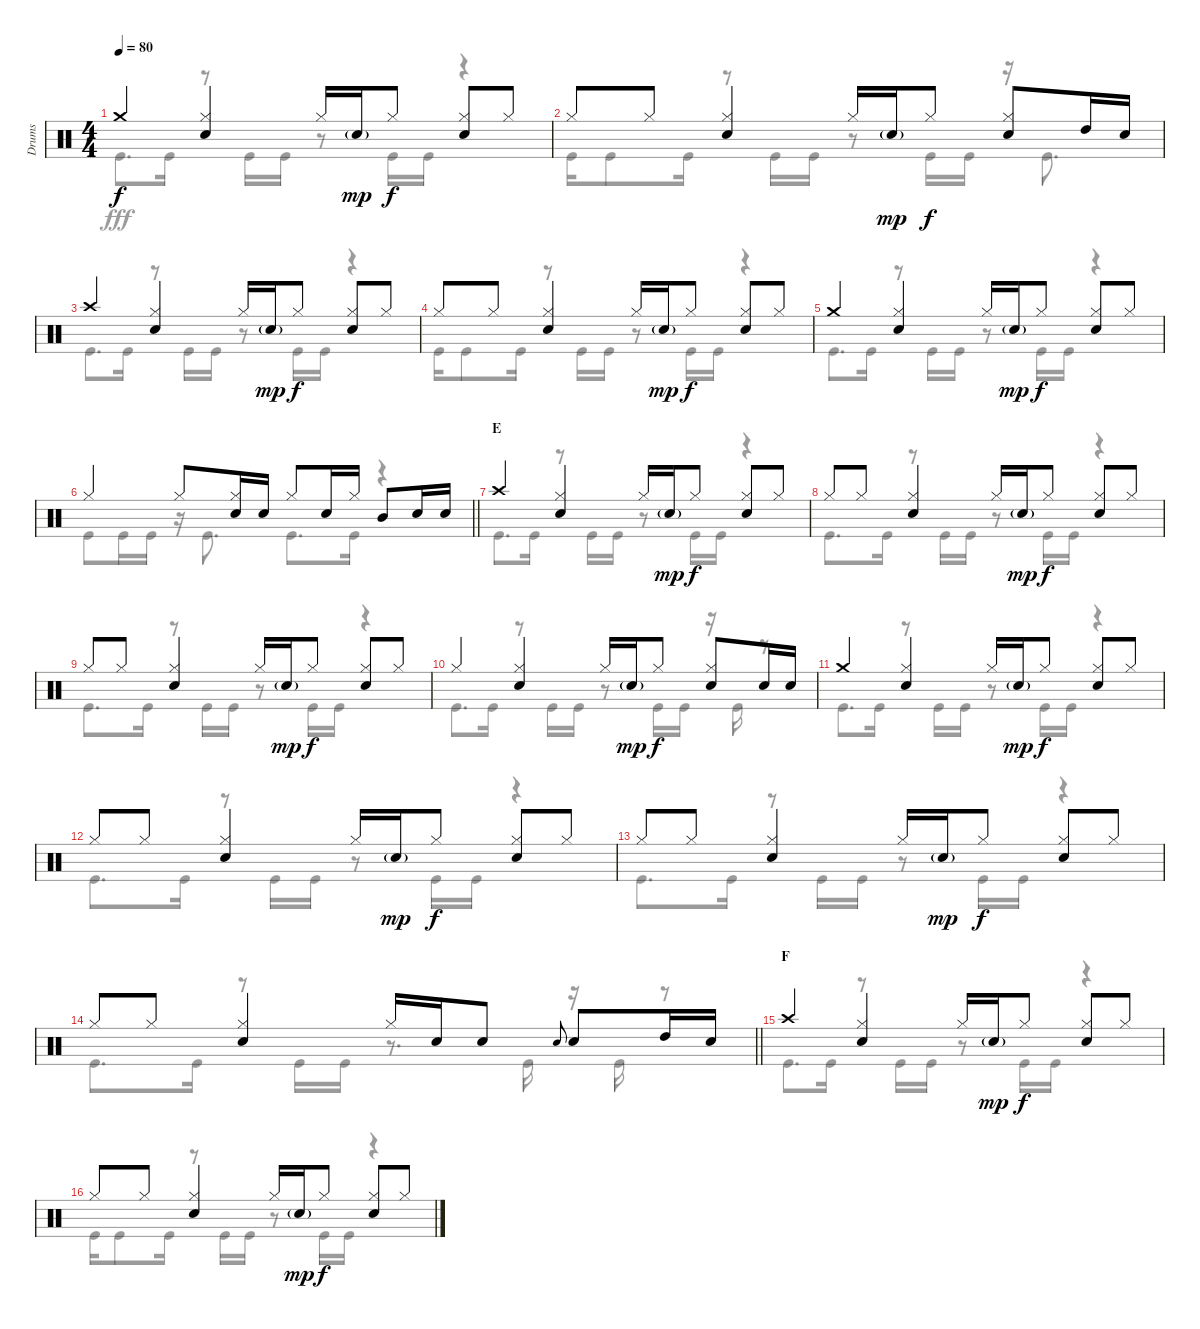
\track ("Drums" "Drums") {instrument percussion}
\staff {score}
\articulation defaults
\voice
\ts (4 4)
\tempo 80
\clef neutral
\ks c "Crash medium (hit)".4{dy f}
("Hi-Hat (closed)" "Snare (hit) 2").4 "Hi-Hat (closed)".16 "Snare (hit) 2"{g}.16{dy mp} "Hi-Hat (closed)".8{dy f} ("Hi-Hat (closed)" "Snare (hit) 2").8 "Hi-Hat (closed)".8 |
"Hi-Hat (closed)".8 "Hi-Hat (closed)".8 ("Hi-Hat (closed)" "Snare (hit) 2").4 "Hi-Hat (closed)".16 "Snare (hit) 2"{g}.16{dy mp} "Hi-Hat (closed)".8{dy f} ("Hi-Hat (closed)" "Snare (hit) 2").8 "High Tom (hit)".16 "Snare (hit) 2".16 |
"Crash high (hit)".4 ("Hi-Hat (closed)" "Snare (hit) 2").4 "Hi-Hat (closed)".16 "Snare (hit) 2"{g}.16{dy mp} "Hi-Hat (closed)".8{dy f} ("Hi-Hat (closed)" "Snare (hit) 2").8 "Hi-Hat (closed)".8 |
"Hi-Hat (closed)".8 "Hi-Hat (closed)".8 ("Hi-Hat (closed)" "Snare (hit) 2").4 "Hi-Hat (closed)".16 "Snare (hit) 2"{g}.16{dy mp} "Hi-Hat (closed)".8{dy f} ("Hi-Hat (closed)" "Snare (hit) 2").8 "Hi-Hat (closed)".8 |
"Crash medium (hit)".4 ("Hi-Hat (closed)" "Snare (hit) 2").4 "Hi-Hat (closed)".16 "Snare (hit) 2"{g}.16{dy mp} "Hi-Hat (closed)".8{dy f} ("Hi-Hat (closed)" "Snare (hit) 2").8 "Hi-Hat (closed)".8 |
\barLineRight lightlight "Hi-Hat (closed)".4 "Hi-Hat (closed)".8
("Hi-Hat (closed)" "Snare (hit) 2").16 "Snare (hit) 2".16 "Hi-Hat (closed)".8 "Snare (hit) 2".16 "Hi-Hat (closed)".16 "Mid Tom (hit)".8 "Snare (hit) 2".16 "Snare (hit) 2".16 |
\section ("" "E")
"Crash high (hit)".4 ("Hi-Hat (closed)" "Snare (hit) 2").4 "Hi-Hat (closed)".16 "Snare (hit) 2"{g}.16{dy mp} "Hi-Hat (closed)".8{dy f} ("Hi-Hat (closed)" "Snare (hit) 2").8 "Hi-Hat (closed)".8 |
"Hi-Hat (closed)".8 "Hi-Hat (closed)".8 ("Hi-Hat (closed)" "Snare (hit) 2").4 "Hi-Hat (closed)".16 "Snare (hit) 2"{g}.16{dy mp} "Hi-Hat (closed)".8{dy f} ("Hi-Hat (closed)" "Snare (hit) 2").8 "Hi-Hat (closed)".8 |
"Hi-Hat (closed)".8 "Hi-Hat (closed)".8 ("Hi-Hat (closed)" "Snare (hit) 2").4 "Hi-Hat (closed)".16 "Snare (hit) 2"{g}.16{dy mp} "Hi-Hat (closed)".8{dy f} ("Hi-Hat (closed)" "Snare (hit) 2").8 "Hi-Hat (closed)".8 |
"Hi-Hat (closed)".4 ("Hi-Hat (closed)" "Snare (hit) 2").4 "Hi-Hat (closed)".16 "Snare (hit) 2"{g}.16{dy mp} "Hi-Hat (closed)".8{dy f} ("Hi-Hat (closed)" "Snare (hit) 2").8 "Snare (hit) 2".16 "Snare (hit) 2".16 |
"Crash medium (hit)".4 ("Hi-Hat (closed)" "Snare (hit) 2").4 "Hi-Hat (closed)".16 "Snare (hit) 2"{g}.16{dy mp} "Hi-Hat (closed)".8{dy f} ("Hi-Hat (closed)" "Snare (hit) 2").8 "Hi-Hat (closed)".8 |
"Hi-Hat (closed)".8 "Hi-Hat (closed)".8 ("Hi-Hat (closed)" "Snare (hit) 2").4 "Hi-Hat (closed)".16 "Snare (hit) 2"{g}.16{dy mp} "Hi-Hat (closed)".8{dy f} ("Hi-Hat (closed)" "Snare (hit) 2").8 "Hi-Hat (closed)".8 |
"Hi-Hat (closed)".8 "Hi-Hat (closed)".8 ("Hi-Hat (closed)" "Snare (hit) 2").4 "Hi-Hat (closed)".16 "Snare (hit) 2"{g}.16{dy mp} "Hi-Hat (closed)".8{dy f} ("Hi-Hat (closed)" "Snare (hit) 2").8 "Hi-Hat (closed)".8 |
\barLineRight lightlight "Hi-Hat (closed)".8 "Hi-Hat (closed)".8
("Hi-Hat (closed)" "Snare (hit) 2").4 "Hi-Hat (closed)".16 "Snare (hit) 2".16 "Snare (hit) 2".8 "Snare (hit) 2".8{gr onbeat} "Snare (hit) 2".8 "High Tom (hit)".16 "Snare (hit) 2".16 |
\section ("" "F")
"Crash high (hit)".4 ("Hi-Hat (closed)" "Snare (hit) 2").4 "Hi-Hat (closed)".16 "Snare (hit) 2"{g}.16{dy mp} "Hi-Hat (closed)".8{dy f} ("Hi-Hat (closed)" "Snare (hit) 2").8 "Hi-Hat (closed)".8 |
"Hi-Hat (closed)".8 "Hi-Hat (closed)".8 ("Hi-Hat (closed)" "Snare (hit) 2").4 "Hi-Hat (closed)".16 "Snare (hit) 2"{g}.16{dy mp} "Hi-Hat (closed)".8{dy f} ("Hi-Hat (closed)" "Snare (hit) 2").8 "Hi-Hat (closed)".8
\voice
\clef neutral
\ottava regular
\simile none
\ks c "Kick (hit)".8{d dy fff} "Kick (hit)".16
r.8 "Kick (hit)".16 "Kick (hit)".16 r.8 "Kick (hit)".16 "Kick (hit)".16 r.4 |
"Kick (hit)".16 "Kick (hit)".8 "Kick (hit)".16 r.8 "Kick (hit)".16 "Kick (hit)".16 r.8 "Kick (hit)".16 "Kick (hit)".16 r.16 "Kick (hit)".8{d} |
"Kick (hit)".8{d} "Kick (hit)".16 r.8 "Kick (hit)".16 "Kick (hit)".16 r.8 "Kick (hit)".16 "Kick (hit)".16 r.4 |
"Kick (hit)".16 "Kick (hit)".8 "Kick (hit)".16 r.8 "Kick (hit)".16 "Kick (hit)".16 r.8 "Kick (hit)".16 "Kick (hit)".16 r.4 |
"Kick (hit)".8{d} "Kick (hit)".16 r.8 "Kick (hit)".16 "Kick (hit)".16 r.8 "Kick (hit)".16 "Kick (hit)".16 r.4 |
\barLineRight lightlight "Kick (hit)".8 "Kick (hit)".16 "Kick (hit)".16
r.16 "Kick (hit)".8{d} "Kick (hit)".8{d} "Kick (hit)".16 r.4 |
"Kick (hit)".8{d} "Kick (hit)".16 r.8 "Kick (hit)".16 "Kick (hit)".16 r.8 "Kick (hit)".16 "Kick (hit)".16 r.4 |
"Kick (hit)".8{d} "Kick (hit)".16 r.8 "Kick (hit)".16 "Kick (hit)".16 r.8 "Kick (hit)".16 "Kick (hit)".16 r.4 |
"Kick (hit)".8{d} "Kick (hit)".16 r.8 "Kick (hit)".16 "Kick (hit)".16 r.8 "Kick (hit)".16 "Kick (hit)".16 r.4 |
"Kick (hit)".8{d} "Kick (hit)".16 r.8 "Kick (hit)".16 "Kick (hit)".16 r.8 "Kick (hit)".16 "Kick (hit)".16 r.16 "Kick (hit)".16 r.8 |
"Kick (hit)".8{d} "Kick (hit)".16 r.8 "Kick (hit)".16 "Kick (hit)".16 r.8 "Kick (hit)".16 "Kick (hit)".16 r.4 |
"Kick (hit)".8{d} "Kick (hit)".16 r.8 "Kick (hit)".16 "Kick (hit)".16 r.8 "Kick (hit)".16 "Kick (hit)".16 r.4 |
"Kick (hit)".8{d} "Kick (hit)".16 r.8 "Kick (hit)".16 "Kick (hit)".16 r.8 "Kick (hit)".16 "Kick (hit)".16 r.4 |
\barLineRight lightlight "Kick (hit)".8{d} "Kick (hit)".16
r.8 "Kick (hit)".16 "Kick (hit)".16 r.8{d} "Kick (hit)".16 r.16 "Kick (hit)".16 r.8 |
"Kick (hit)".8{d} "Kick (hit)".16 r.8 "Kick (hit)".16 "Kick (hit)".16 r.8 "Kick (hit)".16 "Kick (hit)".16 r.4 |
"Kick (hit)".16 "Kick (hit)".8 "Kick (hit)".16 r.8 "Kick (hit)".16 "Kick (hit)".16 r.8 "Kick (hit)".16 "Kick (hit)".16 r.4
